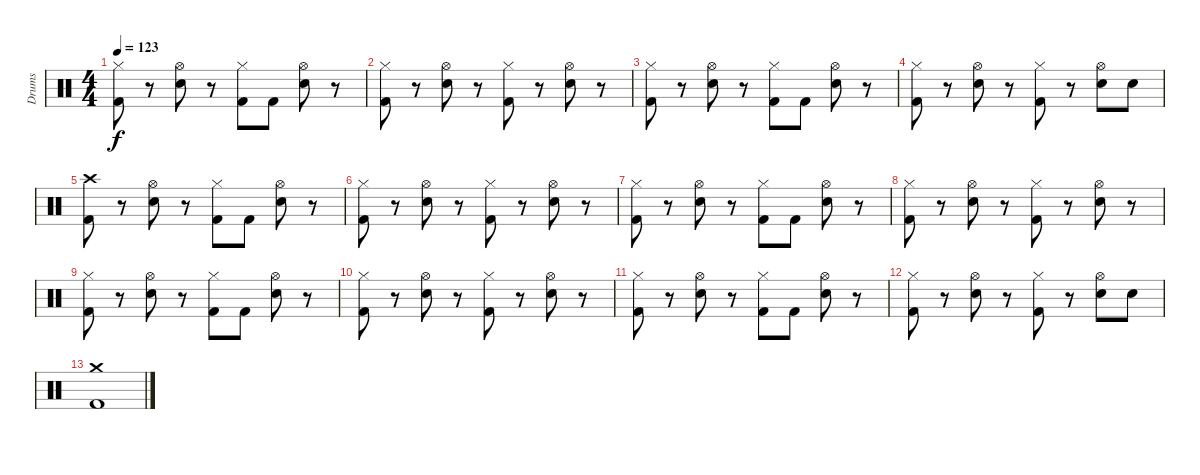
\track ("Drums" "Drums") {instrument percussion}
\staff {score}
\articulation defaults
\ts (4 4)
\tempo 123
\clef neutral
\ks c
("Hi-Hat (closed)" "Kick (hit) 2").8{dy f} r.8 ("Hi-Hat (open)" "Snare (hit) 2").8 r.8 ("Hi-Hat (closed)" "Kick (hit) 2").8 "Kick (hit) 2".8 ("Hi-Hat (open)" "Snare (hit) 2").8 r.8 |
("Hi-Hat (closed)" "Kick (hit) 2").8 r.8 ("Hi-Hat (open)" "Snare (hit) 2").8 r.8 ("Hi-Hat (closed)" "Kick (hit) 2").8 r.8 ("Hi-Hat (open)" "Snare (hit) 2").8 r.8 |
("Hi-Hat (closed)" "Kick (hit) 2").8 r.8 ("Hi-Hat (open)" "Snare (hit) 2").8 r.8 ("Hi-Hat (closed)" "Kick (hit) 2").8 "Kick (hit) 2".8 ("Hi-Hat (open)" "Snare (hit) 2").8 r.8 |
("Hi-Hat (closed)" "Kick (hit) 2").8 r.8 ("Hi-Hat (open)" "Snare (hit) 2").8 r.8 ("Hi-Hat (closed)" "Kick (hit) 2").8 r.8 ("Hi-Hat (open)" "Snare (hit) 2").8 "Snare (hit) 2".8 |
("Crash high (hit)" "Kick (hit) 2").8 r.8 ("Hi-Hat (open)" "Snare (hit) 2").8 r.8 ("Hi-Hat (closed)" "Kick (hit) 2").8 "Kick (hit) 2".8 ("Hi-Hat (open)" "Snare (hit) 2").8 r.8 |
("Hi-Hat (closed)" "Kick (hit) 2").8 r.8 ("Hi-Hat (open)" "Snare (hit) 2").8 r.8 ("Hi-Hat (closed)" "Kick (hit) 2").8 r.8 ("Hi-Hat (open)" "Snare (hit) 2").8 r.8 |
("Hi-Hat (closed)" "Kick (hit) 2").8 r.8 ("Hi-Hat (open)" "Snare (hit) 2").8 r.8 ("Hi-Hat (closed)" "Kick (hit) 2").8 "Kick (hit) 2".8 ("Hi-Hat (open)" "Snare (hit) 2").8 r.8 |
("Hi-Hat (closed)" "Kick (hit) 2").8 r.8 ("Hi-Hat (open)" "Snare (hit) 2").8 r.8 ("Hi-Hat (closed)" "Kick (hit) 2").8 r.8 ("Hi-Hat (open)" "Snare (hit) 2").8 r.8 |
("Hi-Hat (closed)" "Kick (hit) 2").8 r.8 ("Hi-Hat (open)" "Snare (hit) 2").8 r.8 ("Hi-Hat (closed)" "Kick (hit) 2").8 "Kick (hit) 2".8 ("Hi-Hat (open)" "Snare (hit) 2").8 r.8 |
("Hi-Hat (closed)" "Kick (hit) 2").8 r.8 ("Hi-Hat (open)" "Snare (hit) 2").8 r.8 ("Hi-Hat (closed)" "Kick (hit) 2").8 r.8 ("Hi-Hat (open)" "Snare (hit) 2").8 r.8 |
("Hi-Hat (closed)" "Kick (hit) 2").8 r.8 ("Hi-Hat (open)" "Snare (hit) 2").8 r.8 ("Hi-Hat (closed)" "Kick (hit) 2").8 "Kick (hit) 2".8 ("Hi-Hat (open)" "Snare (hit) 2").8 r.8 |
("Hi-Hat (closed)" "Kick (hit) 2").8 r.8 ("Hi-Hat (open)" "Snare (hit) 2").8 r.8 ("Hi-Hat (closed)" "Kick (hit) 2").8 r.8 ("Hi-Hat (open)" "Snare (hit) 2").8 "Snare (hit) 2".8 |
("Crash medium (hit)" "Kick (hit) 2").1
